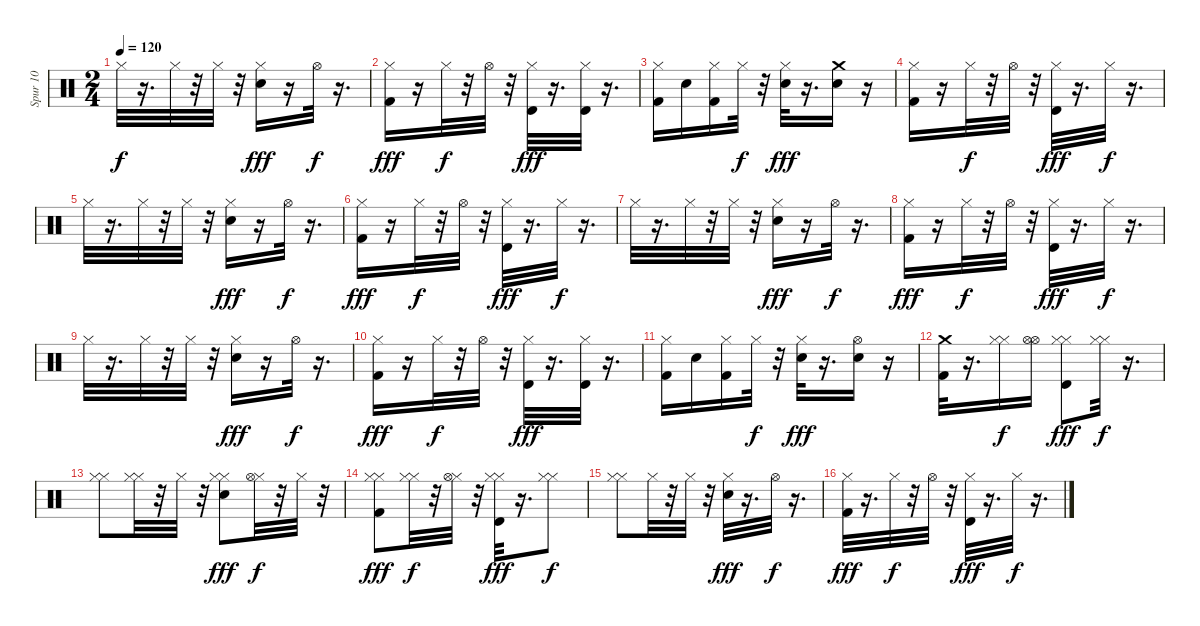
\track ("Spur 10" "Spur 10") {instrument percussion}
\staff {score}
\articulation defaults
\ts (2 4)
\tempo 120
\clef neutral
\ks c "Hi-Hat (closed)".32{dy f}
r.16{d} "Hi-Hat (closed)".32 r.32 "Hi-Hat (closed)".32 r.32 ("Electric Snare (hit)" "Hi-Hat (closed)").16{dy fff} r.16 "Hi-Hat (open)".32{dy f} r.16{d} |
("Kick (hit) 2" "Hi-Hat (closed)").16{dy fff} r.16 "Hi-Hat (closed)".32{dy f} r.32 "Hi-Hat (open)".32 r.32 ("Timbale high (hit)" "Hi-Hat (closed)").32{dy fff} r.16{d} ("Timbale high (hit)" "Hi-Hat (closed)").32 r.16{d} |
("Kick (hit) 2" "Hi-Hat (closed)").16 "Electric Snare (hit)".16 ("Kick (hit) 2" "Hi-Hat (closed)").16 "Hi-Hat (closed)".32{dy f} r.32 ("Electric Snare (hit)" "Hi-Hat (closed)").32{dy fff} r.16{d} ("Electric Snare (hit)" "Crash medium (hit)").16 r.16 |
("Kick (hit) 2" "Hi-Hat (closed)").16 r.16 "Hi-Hat (closed)".32{dy f} r.32 "Hi-Hat (open)".32 r.32 ("Timbale high (hit)" "Hi-Hat (closed)").32{dy fff} r.16{d} "Hi-Hat (closed)".32{dy f} r.16{d} |
"Hi-Hat (closed)".32 r.16{d} "Hi-Hat (closed)".32 r.32 "Hi-Hat (closed)".32 r.32 ("Electric Snare (hit)" "Hi-Hat (closed)").16{dy fff} r.16 "Hi-Hat (open)".32{dy f} r.16{d} |
("Kick (hit) 2" "Hi-Hat (closed)").16{dy fff} r.16 "Hi-Hat (closed)".32{dy f} r.32 "Hi-Hat (open)".32 r.32 ("Timbale high (hit)" "Hi-Hat (closed)").32{dy fff} r.16{d} "Hi-Hat (closed)".32{dy f} r.16{d} |
"Hi-Hat (closed)".32 r.16{d} "Hi-Hat (closed)".32 r.32 "Hi-Hat (closed)".32 r.32 ("Electric Snare (hit)" "Hi-Hat (closed)").16{dy fff} r.16 "Hi-Hat (open)".32{dy f} r.16{d} |
("Kick (hit) 2" "Hi-Hat (closed)").16{dy fff} r.16 "Hi-Hat (closed)".32{dy f} r.32 "Hi-Hat (open)".32 r.32 ("Timbale high (hit)" "Hi-Hat (closed)").32{dy fff} r.16{d} "Hi-Hat (closed)".32{dy f} r.16{d} |
"Hi-Hat (closed)".32 r.16{d} "Hi-Hat (closed)".32 r.32 "Hi-Hat (closed)".32 r.32 ("Electric Snare (hit)" "Hi-Hat (closed)").16{dy fff} r.16 "Hi-Hat (open)".32{dy f} r.16{d} |
("Kick (hit) 2" "Hi-Hat (closed)").16{dy fff} r.16 "Hi-Hat (closed)".32{dy f} r.32 "Hi-Hat (open)".32 r.32 ("Timbale high (hit)" "Hi-Hat (closed)").32{dy fff} r.16{d} ("Timbale high (hit)" "Hi-Hat (closed)").32 r.16{d} |
("Kick (hit) 2" "Hi-Hat (closed)").16 "Electric Snare (hit)".16 ("Kick (hit) 2" "Hi-Hat (closed)").16 "Hi-Hat (closed)".32{dy f} r.32 ("Electric Snare (hit)" "Hi-Hat (closed)").32{dy fff} r.16{d} ("Electric Snare (hit)" "Hi-Hat (open)").16 r.16 |
("Kick (hit) 2" "Crash medium (hit)").32 r.16{d} ("Hi-Hat (closed)" "Hi-Hat (closed)").16{dy f} ("Hi-Hat (open)" "Hi-Hat (open)").16 ("Hi-Hat (closed)" "Timbale high (hit)" "Hi-Hat (closed)").8{dy fff} ("Hi-Hat (closed)" "Hi-Hat (closed)").32{dy f} r.16{d} |
("Hi-Hat (closed)" "Hi-Hat (closed)").8 ("Hi-Hat (closed)" "Hi-Hat (closed)").32 r.32 "Hi-Hat (closed)".32 r.32 ("Hi-Hat (closed)" "Electric Snare (hit)" "Hi-Hat (closed)").8{dy fff} ("Hi-Hat (closed)" "Hi-Hat (open)").32{dy f} r.32 "Hi-Hat (closed)".32 r.32 |
("Kick (hit) 2" "Hi-Hat (closed)" "Hi-Hat (closed)").8{dy fff} ("Hi-Hat (closed)" "Hi-Hat (closed)").32{dy f} r.32 ("Hi-Hat (closed)" "Hi-Hat (open)").32 r.32 ("Timbale high (hit)" "Hi-Hat (closed)" "Hi-Hat (closed)").32{dy fff} r.16{d} ("Hi-Hat (closed)" "Hi-Hat (closed)").8{dy f} |
("Hi-Hat (closed)" "Hi-Hat (closed)").8 "Hi-Hat (closed)".32 r.32 "Hi-Hat (closed)".32 r.32 ("Electric Snare (hit)" "Hi-Hat (closed)").32{dy fff} r.16{d} "Hi-Hat (open)".32{dy f} r.16{d} |
("Kick (hit) 2" "Hi-Hat (closed)").32{dy fff} r.16{d} "Hi-Hat (closed)".32{dy f} r.32 "Hi-Hat (open)".32 r.32 ("Timbale high (hit)" "Hi-Hat (closed)").32{dy fff} r.16{d} "Hi-Hat (closed)".32{dy f} r.16{d}
